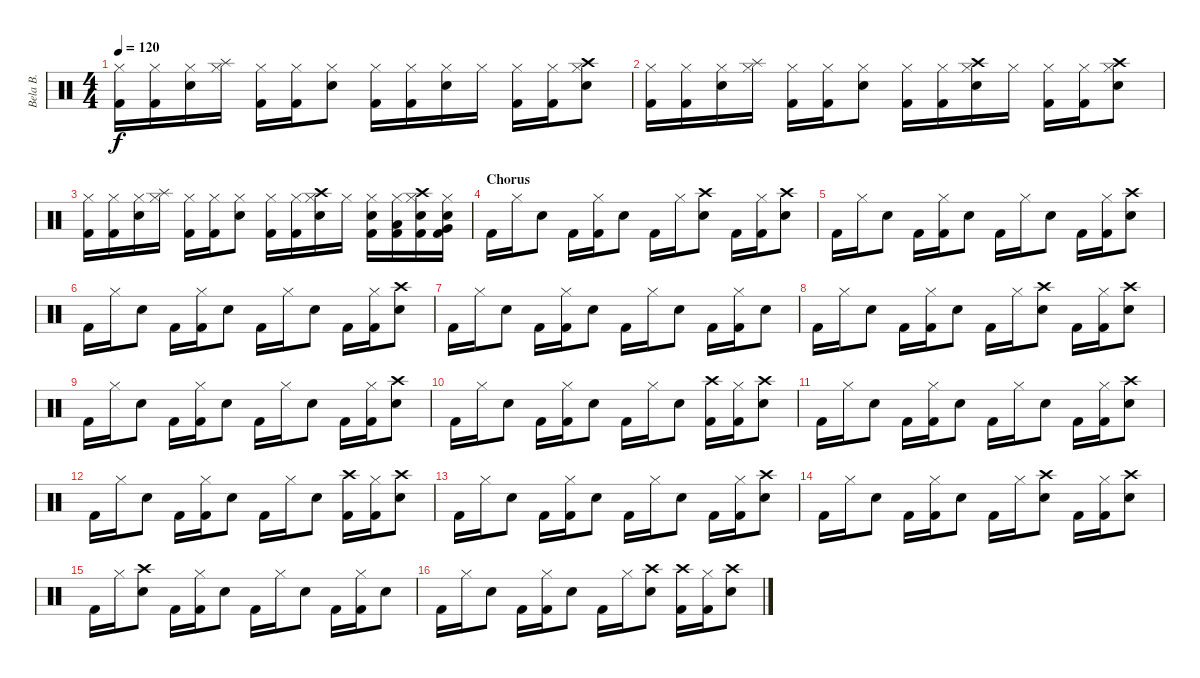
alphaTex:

\track ("Bela B." "Bela B.") {instrument percussion}
\staff {score}
\articulation defaults
\ts (4 4)
\tempo 120
\clef neutral
\ks c
("Hi-Hat (closed)" "Kick (hit) 2").16{dy f} ("Hi-Hat (closed)" "Kick (hit) 2").16 ("Hi-Hat (closed)" "Electric Snare (hit)").16 ("Hi-Hat (closed)" "Splash (hit)").16 ("Hi-Hat (closed)" "Kick (hit) 2").16 ("Hi-Hat (closed)" "Kick (hit) 2").16 ("Hi-Hat (closed)" "Electric Snare (hit)").8 ("Hi-Hat (closed)" "Kick (hit) 2").16 ("Hi-Hat (closed)" "Kick (hit) 2").16 ("Hi-Hat (closed)" "Electric Snare (hit)").16 "Hi-Hat (closed)".16 ("Hi-Hat (closed)" "Kick (hit) 2").16 ("Hi-Hat (closed)" "Kick (hit) 2").16 ("Hi-Hat (closed)" "Crash high (hit)" "Electric Snare (hit)").8 |
("Hi-Hat (closed)" "Kick (hit) 2").16 ("Hi-Hat (closed)" "Kick (hit) 2").16 ("Hi-Hat (closed)" "Electric Snare (hit)").16 ("Hi-Hat (closed)" "Splash (hit)").16 ("Hi-Hat (closed)" "Kick (hit) 2").16 ("Hi-Hat (closed)" "Kick (hit) 2").16 ("Hi-Hat (closed)" "Electric Snare (hit)").8 ("Hi-Hat (closed)" "Kick (hit) 2").16 ("Hi-Hat (closed)" "Kick (hit) 2").16 ("Hi-Hat (closed)" "Crash high (hit)" "Electric Snare (hit)").16 "Hi-Hat (closed)".16 ("Hi-Hat (closed)" "Kick (hit) 2").16 ("Hi-Hat (closed)" "Kick (hit) 2").16 ("Hi-Hat (closed)" "Crash high (hit)" "Electric Snare (hit)").8 |
("Hi-Hat (closed)" "Kick (hit) 2").16 ("Hi-Hat (closed)" "Kick (hit) 2").16 ("Hi-Hat (closed)" "Electric Snare (hit)").16 ("Hi-Hat (closed)" "Splash (hit)").16 ("Hi-Hat (closed)" "Kick (hit) 2").16 ("Hi-Hat (closed)" "Kick (hit) 2").16 ("Hi-Hat (closed)" "Electric Snare (hit)").8 ("Hi-Hat (closed)" "Kick (hit) 2").16 ("Hi-Hat (closed)" "Kick (hit) 2").16 ("Hi-Hat (closed)" "Crash high (hit)" "Electric Snare (hit)").16 "Hi-Hat (closed)".16 ("Hi-Hat (closed)" "Electric Snare (hit)" "Kick (hit) 2").16 ("Hi-Hat (closed)" "Low Floor Tom (hit)" "Kick (hit) 2").16 ("Hi-Hat (closed)" "Crash high (hit)" "Electric Snare (hit)" "Kick (hit) 2").16 ("Hi-Hat (closed)" "Very Low Tom (hit)" "Electric Snare (hit)" "Kick (hit) 2").16 |
\section ("" "Chorus")
"Kick (hit) 2".16 "Hi-Hat (closed)".16 "Electric Snare (hit)".8 "Kick (hit) 2".16 ("Hi-Hat (closed)" "Kick (hit) 2").16 "Electric Snare (hit)".8 "Kick (hit) 2".16 "Hi-Hat (closed)".16 ("Crash high (hit)" "Electric Snare (hit)").8 "Kick (hit) 2".16 ("Hi-Hat (closed)" "Kick (hit) 2").16 ("Crash high (hit)" "Electric Snare (hit)").8 |
"Kick (hit) 2".16 "Hi-Hat (closed)".16 "Electric Snare (hit)".8 "Kick (hit) 2".16 ("Hi-Hat (closed)" "Kick (hit) 2").16 "Electric Snare (hit)".8 "Kick (hit) 2".16 "Hi-Hat (closed)".16 "Electric Snare (hit)".8 "Kick (hit) 2".16 ("Hi-Hat (closed)" "Kick (hit) 2").16 ("Crash high (hit)" "Electric Snare (hit)").8 |
"Kick (hit) 2".16 "Hi-Hat (closed)".16 "Electric Snare (hit)".8 "Kick (hit) 2".16 ("Hi-Hat (closed)" "Kick (hit) 2").16 "Electric Snare (hit)".8 "Kick (hit) 2".16 "Hi-Hat (closed)".16 "Electric Snare (hit)".8 "Kick (hit) 2".16 ("Hi-Hat (closed)" "Kick (hit) 2").16 ("Crash high (hit)" "Electric Snare (hit)").8 |
"Kick (hit) 2".16 "Hi-Hat (closed)".16 "Electric Snare (hit)".8 "Kick (hit) 2".16 ("Hi-Hat (closed)" "Kick (hit) 2").16 "Electric Snare (hit)".8 "Kick (hit) 2".16 "Hi-Hat (closed)".16 "Electric Snare (hit)".8 "Kick (hit) 2".16 ("Hi-Hat (closed)" "Kick (hit) 2").16 "Electric Snare (hit)".8 |
"Kick (hit) 2".16 "Hi-Hat (closed)".16 "Electric Snare (hit)".8 "Kick (hit) 2".16 ("Hi-Hat (closed)" "Kick (hit) 2").16 "Electric Snare (hit)".8 "Kick (hit) 2".16 "Hi-Hat (closed)".16 ("Crash high (hit)" "Electric Snare (hit)").8 "Kick (hit) 2".16 ("Hi-Hat (closed)" "Kick (hit) 2").16 ("Crash high (hit)" "Electric Snare (hit)").8 |
"Kick (hit) 2".16 "Hi-Hat (closed)".16 "Electric Snare (hit)".8 "Kick (hit) 2".16 ("Hi-Hat (closed)" "Kick (hit) 2").16 "Electric Snare (hit)".8 "Kick (hit) 2".16 "Hi-Hat (closed)".16 "Electric Snare (hit)".8 "Kick (hit) 2".16 ("Hi-Hat (closed)" "Kick (hit) 2").16 ("Crash high (hit)" "Electric Snare (hit)").8 |
"Kick (hit) 2".16 "Hi-Hat (closed)".16 "Electric Snare (hit)".8 "Kick (hit) 2".16 ("Hi-Hat (closed)" "Kick (hit) 2").16 "Electric Snare (hit)".8 "Kick (hit) 2".16 "Hi-Hat (closed)".16 "Electric Snare (hit)".8 ("Crash high (hit)" "Kick (hit) 2").16 ("Hi-Hat (closed)" "Kick (hit) 2").16 ("Crash high (hit)" "Electric Snare (hit)").8 |
"Kick (hit) 2".16 "Hi-Hat (closed)".16 "Electric Snare (hit)".8 "Kick (hit) 2".16 ("Hi-Hat (closed)" "Kick (hit) 2").16 "Electric Snare (hit)".8 "Kick (hit) 2".16 "Hi-Hat (closed)".16 "Electric Snare (hit)".8 "Kick (hit) 2".16 ("Hi-Hat (closed)" "Kick (hit) 2").16 ("Crash high (hit)" "Electric Snare (hit)").8 |
"Kick (hit) 2".16 "Hi-Hat (closed)".16 "Electric Snare (hit)".8 "Kick (hit) 2".16 ("Hi-Hat (closed)" "Kick (hit) 2").16 "Electric Snare (hit)".8 "Kick (hit) 2".16 "Hi-Hat (closed)".16 "Electric Snare (hit)".8 ("Crash high (hit)" "Kick (hit) 2").16 ("Hi-Hat (closed)" "Kick (hit) 2").16 ("Crash high (hit)" "Electric Snare (hit)").8 |
"Kick (hit) 2".16 "Hi-Hat (closed)".16 "Electric Snare (hit)".8 "Kick (hit) 2".16 ("Hi-Hat (closed)" "Kick (hit) 2").16 "Electric Snare (hit)".8 "Kick (hit) 2".16 "Hi-Hat (closed)".16 "Electric Snare (hit)".8 "Kick (hit) 2".16 ("Hi-Hat (closed)" "Kick (hit) 2").16 ("Crash high (hit)" "Electric Snare (hit)").8 |
"Kick (hit) 2".16 "Hi-Hat (closed)".16 "Electric Snare (hit)".8 "Kick (hit) 2".16 ("Hi-Hat (closed)" "Kick (hit) 2").16 "Electric Snare (hit)".8 "Kick (hit) 2".16 "Hi-Hat (closed)".16 ("Crash high (hit)" "Electric Snare (hit)").8 "Kick (hit) 2".16 ("Hi-Hat (closed)" "Kick (hit) 2").16 ("Crash high (hit)" "Electric Snare (hit)").8 |
"Kick (hit) 2".16 "Hi-Hat (closed)".16 ("Crash high (hit)" "Electric Snare (hit)").8 "Kick (hit) 2".16 ("Hi-Hat (closed)" "Kick (hit) 2").16 "Electric Snare (hit)".8 "Kick (hit) 2".16 "Hi-Hat (closed)".16 "Electric Snare (hit)".8 "Kick (hit) 2".16 ("Hi-Hat (closed)" "Kick (hit) 2").16 "Electric Snare (hit)".8 |
"Kick (hit) 2".16 "Hi-Hat (closed)".16 "Electric Snare (hit)".8 "Kick (hit) 2".16 ("Hi-Hat (closed)" "Kick (hit) 2").16 "Electric Snare (hit)".8 "Kick (hit) 2".16 "Hi-Hat (closed)".16 ("Crash high (hit)" "Electric Snare (hit)").8 ("Crash high (hit)" "Kick (hit) 2").16 ("Hi-Hat (closed)" "Kick (hit) 2").16 ("Crash high (hit)" "Electric Snare (hit)").8
